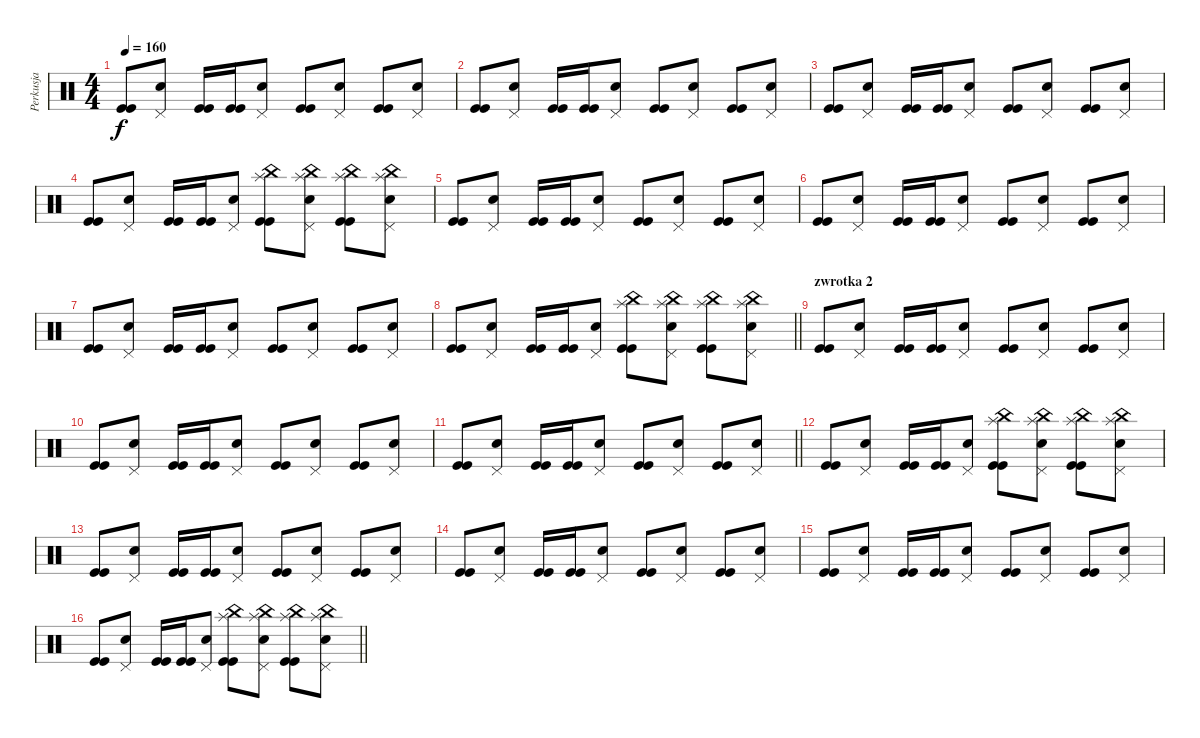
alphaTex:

\track ("Perkusja" "Perkusja") {instrument percussion}
\staff {score}
\articulation defaults
\ts (4 4)
\tempo 160
\clef neutral
\ks c
("Kick (hit)" "Kick (hit)").8{dy f} ("Pedal Hi-Hat (hit)" "Snare (hit) 2").8 ("Kick (hit)" "Kick (hit)").16 ("Kick (hit)" "Kick (hit)").16 ("Pedal Hi-Hat (hit)" "Snare (hit) 2").8 ("Kick (hit)" "Kick (hit)").8 ("Pedal Hi-Hat (hit)" "Snare (hit) 2").8 ("Kick (hit)" "Kick (hit)").8 ("Pedal Hi-Hat (hit)" "Snare (hit) 2").8 |
("Kick (hit)" "Kick (hit)").8 ("Pedal Hi-Hat (hit)" "Snare (hit) 2").8 ("Kick (hit)" "Kick (hit)").16 ("Kick (hit)" "Kick (hit)").16 ("Pedal Hi-Hat (hit)" "Snare (hit) 2").8 ("Kick (hit)" "Kick (hit)").8 ("Pedal Hi-Hat (hit)" "Snare (hit) 2").8 ("Kick (hit)" "Kick (hit)").8 ("Pedal Hi-Hat (hit)" "Snare (hit) 2").8 |
("Kick (hit)" "Kick (hit)").8 ("Pedal Hi-Hat (hit)" "Snare (hit) 2").8 ("Kick (hit)" "Kick (hit)").16 ("Kick (hit)" "Kick (hit)").16 ("Pedal Hi-Hat (hit)" "Snare (hit) 2").8 ("Kick (hit)" "Kick (hit)").8 ("Pedal Hi-Hat (hit)" "Snare (hit) 2").8 ("Kick (hit)" "Kick (hit)").8 ("Pedal Hi-Hat (hit)" "Snare (hit) 2").8 |
("Kick (hit)" "Kick (hit)").8 ("Pedal Hi-Hat (hit)" "Snare (hit) 2").8 ("Kick (hit)" "Kick (hit)").16 ("Kick (hit)" "Kick (hit)").16 ("Pedal Hi-Hat (hit)" "Snare (hit) 2").8 ("China (hit)" "Splash (hit)" "Kick (hit)" "Kick (hit)").8 ("China (hit)" "Splash (hit)" "Pedal Hi-Hat (hit)" "Snare (hit) 2").8 ("China (hit)" "Splash (hit)" "Kick (hit)" "Kick (hit)").8 ("China (hit)" "Splash (hit)" "Pedal Hi-Hat (hit)" "Snare (hit) 2").8 |
("Kick (hit)" "Kick (hit)").8 ("Pedal Hi-Hat (hit)" "Snare (hit) 2").8 ("Kick (hit)" "Kick (hit)").16 ("Kick (hit)" "Kick (hit)").16 ("Pedal Hi-Hat (hit)" "Snare (hit) 2").8 ("Kick (hit)" "Kick (hit)").8 ("Pedal Hi-Hat (hit)" "Snare (hit) 2").8 ("Kick (hit)" "Kick (hit)").8 ("Pedal Hi-Hat (hit)" "Snare (hit) 2").8 |
("Kick (hit)" "Kick (hit)").8 ("Pedal Hi-Hat (hit)" "Snare (hit) 2").8 ("Kick (hit)" "Kick (hit)").16 ("Kick (hit)" "Kick (hit)").16 ("Pedal Hi-Hat (hit)" "Snare (hit) 2").8 ("Kick (hit)" "Kick (hit)").8 ("Pedal Hi-Hat (hit)" "Snare (hit) 2").8 ("Kick (hit)" "Kick (hit)").8 ("Pedal Hi-Hat (hit)" "Snare (hit) 2").8 |
("Kick (hit)" "Kick (hit)").8 ("Pedal Hi-Hat (hit)" "Snare (hit) 2").8 ("Kick (hit)" "Kick (hit)").16 ("Kick (hit)" "Kick (hit)").16 ("Pedal Hi-Hat (hit)" "Snare (hit) 2").8 ("Kick (hit)" "Kick (hit)").8 ("Pedal Hi-Hat (hit)" "Snare (hit) 2").8 ("Kick (hit)" "Kick (hit)").8 ("Pedal Hi-Hat (hit)" "Snare (hit) 2").8 |
\barLineRight lightlight
("Kick (hit)" "Kick (hit)").8 ("Pedal Hi-Hat (hit)" "Snare (hit) 2").8 ("Kick (hit)" "Kick (hit)").16 ("Kick (hit)" "Kick (hit)").16 ("Pedal Hi-Hat (hit)" "Snare (hit) 2").8 ("China (hit)" "Splash (hit)" "Kick (hit)" "Kick (hit)").8 ("China (hit)" "Splash (hit)" "Pedal Hi-Hat (hit)" "Snare (hit) 2").8 ("China (hit)" "Splash (hit)" "Kick (hit)" "Kick (hit)").8 ("China (hit)" "Splash (hit)" "Pedal Hi-Hat (hit)" "Snare (hit) 2").8 |
\section ("" "zwrotka 2")
("Kick (hit)" "Kick (hit)").8 ("Pedal Hi-Hat (hit)" "Snare (hit) 2").8 ("Kick (hit)" "Kick (hit)").16 ("Kick (hit)" "Kick (hit)").16 ("Pedal Hi-Hat (hit)" "Snare (hit) 2").8 ("Kick (hit)" "Kick (hit)").8 ("Pedal Hi-Hat (hit)" "Snare (hit) 2").8 ("Kick (hit)" "Kick (hit)").8 ("Pedal Hi-Hat (hit)" "Snare (hit) 2").8 |
("Kick (hit)" "Kick (hit)").8 ("Pedal Hi-Hat (hit)" "Snare (hit) 2").8 ("Kick (hit)" "Kick (hit)").16 ("Kick (hit)" "Kick (hit)").16 ("Pedal Hi-Hat (hit)" "Snare (hit) 2").8 ("Kick (hit)" "Kick (hit)").8 ("Pedal Hi-Hat (hit)" "Snare (hit) 2").8 ("Kick (hit)" "Kick (hit)").8 ("Pedal Hi-Hat (hit)" "Snare (hit) 2").8 |
\barLineRight lightlight
("Kick (hit)" "Kick (hit)").8 ("Pedal Hi-Hat (hit)" "Snare (hit) 2").8 ("Kick (hit)" "Kick (hit)").16 ("Kick (hit)" "Kick (hit)").16 ("Pedal Hi-Hat (hit)" "Snare (hit) 2").8 ("Kick (hit)" "Kick (hit)").8 ("Pedal Hi-Hat (hit)" "Snare (hit) 2").8 ("Kick (hit)" "Kick (hit)").8 ("Pedal Hi-Hat (hit)" "Snare (hit) 2").8 |
\section ("" "")
("Kick (hit)" "Kick (hit)").8 ("Pedal Hi-Hat (hit)" "Snare (hit) 2").8 ("Kick (hit)" "Kick (hit)").16 ("Kick (hit)" "Kick (hit)").16 ("Pedal Hi-Hat (hit)" "Snare (hit) 2").8 ("China (hit)" "Splash (hit)" "Kick (hit)" "Kick (hit)").8 ("China (hit)" "Splash (hit)" "Pedal Hi-Hat (hit)" "Snare (hit) 2").8 ("China (hit)" "Splash (hit)" "Kick (hit)" "Kick (hit)").8 ("China (hit)" "Splash (hit)" "Pedal Hi-Hat (hit)" "Snare (hit) 2").8 |
("Kick (hit)" "Kick (hit)").8 ("Pedal Hi-Hat (hit)" "Snare (hit) 2").8 ("Kick (hit)" "Kick (hit)").16 ("Kick (hit)" "Kick (hit)").16 ("Pedal Hi-Hat (hit)" "Snare (hit) 2").8 ("Kick (hit)" "Kick (hit)").8 ("Pedal Hi-Hat (hit)" "Snare (hit) 2").8 ("Kick (hit)" "Kick (hit)").8 ("Pedal Hi-Hat (hit)" "Snare (hit) 2").8 |
("Kick (hit)" "Kick (hit)").8 ("Pedal Hi-Hat (hit)" "Snare (hit) 2").8 ("Kick (hit)" "Kick (hit)").16 ("Kick (hit)" "Kick (hit)").16 ("Pedal Hi-Hat (hit)" "Snare (hit) 2").8 ("Kick (hit)" "Kick (hit)").8 ("Pedal Hi-Hat (hit)" "Snare (hit) 2").8 ("Kick (hit)" "Kick (hit)").8 ("Pedal Hi-Hat (hit)" "Snare (hit) 2").8 |
("Kick (hit)" "Kick (hit)").8 ("Pedal Hi-Hat (hit)" "Snare (hit) 2").8 ("Kick (hit)" "Kick (hit)").16 ("Kick (hit)" "Kick (hit)").16 ("Pedal Hi-Hat (hit)" "Snare (hit) 2").8 ("Kick (hit)" "Kick (hit)").8 ("Pedal Hi-Hat (hit)" "Snare (hit) 2").8 ("Kick (hit)" "Kick (hit)").8 ("Pedal Hi-Hat (hit)" "Snare (hit) 2").8 |
\barLineRight lightlight
("Kick (hit)" "Kick (hit)").8 ("Pedal Hi-Hat (hit)" "Snare (hit) 2").8 ("Kick (hit)" "Kick (hit)").16 ("Kick (hit)" "Kick (hit)").16 ("Pedal Hi-Hat (hit)" "Snare (hit) 2").8 ("China (hit)" "Splash (hit)" "Kick (hit)" "Kick (hit)").8 ("China (hit)" "Splash (hit)" "Pedal Hi-Hat (hit)" "Snare (hit) 2").8 ("China (hit)" "Splash (hit)" "Kick (hit)" "Kick (hit)").8 ("China (hit)" "Splash (hit)" "Pedal Hi-Hat (hit)" "Snare (hit) 2").8
